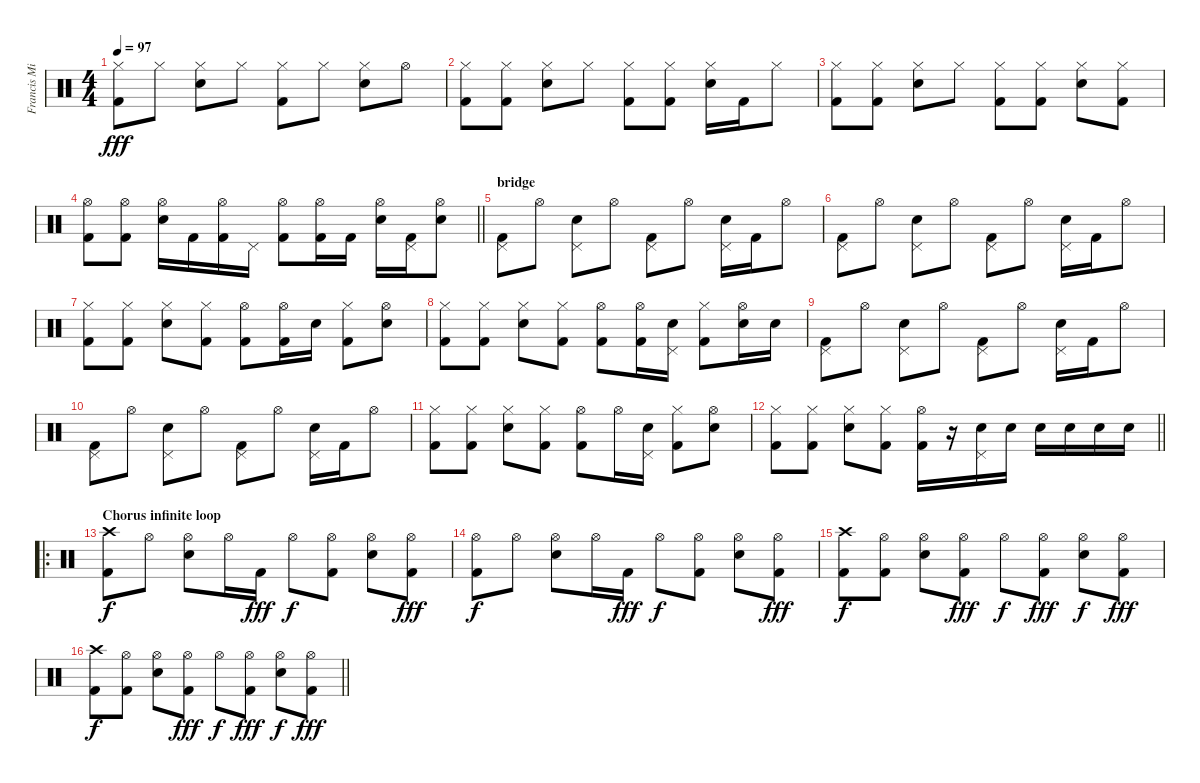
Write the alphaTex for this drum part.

\track ("Francis Mineau" "Francis Mi") {instrument percussion}
\staff {score}
\articulation defaults
\ts (4 4)
\tempo 97
\clef neutral
\ks c
("Hi-Hat (closed)" "Kick (hit) 2").8{dy fff} "Hi-Hat (closed)".8 ("Hi-Hat (closed)" "Snare (hit) 2").8 "Hi-Hat (closed)".8 ("Hi-Hat (closed)" "Kick (hit) 2").8 "Hi-Hat (closed)".8 ("Hi-Hat (closed)" "Snare (hit) 2").8 "Hi-Hat (open)".8 |
("Hi-Hat (closed)" "Kick (hit) 2").8 ("Hi-Hat (closed)" "Kick (hit) 2").8 ("Hi-Hat (closed)" "Snare (hit) 2").8 "Hi-Hat (closed)".8 ("Hi-Hat (closed)" "Kick (hit) 2").8 ("Hi-Hat (closed)" "Kick (hit) 2").8 ("Hi-Hat (closed)" "Snare (hit) 2").16 "Kick (hit) 2".16 "Hi-Hat (closed)".8 |
("Hi-Hat (closed)" "Kick (hit) 2").8 ("Hi-Hat (closed)" "Kick (hit) 2").8 ("Hi-Hat (closed)" "Snare (hit) 2").8 "Hi-Hat (closed)".8 ("Hi-Hat (closed)" "Kick (hit) 2").8 ("Hi-Hat (closed)" "Kick (hit) 2").8 ("Hi-Hat (closed)" "Snare (hit) 2").8 ("Hi-Hat (closed)" "Kick (hit) 2").8 |
\barLineRight lightlight
("Hi-Hat (open)" "Kick (hit) 2").8 ("Hi-Hat (open)" "Kick (hit) 2").8 ("Hi-Hat (open)" "Snare (hit) 2").16 "Kick (hit) 2".16 ("Hi-Hat (open)" "Kick (hit) 2").16 "Pedal Hi-Hat (hit)".16 ("Hi-Hat (open)" "Kick (hit) 2").8 ("Hi-Hat (open)" "Kick (hit) 2").16 "Kick (hit) 2".16 ("Hi-Hat (open)" "Snare (hit) 2").16 ("Pedal Hi-Hat (hit)" "Kick (hit) 2").16 ("Hi-Hat (open)" "Snare (hit) 2").8 |
\section ("" "bridge")
("Pedal Hi-Hat (hit)" "Kick (hit) 2").8 "Hi-Hat (open)".8 ("Pedal Hi-Hat (hit)" "Snare (hit) 2").8 "Hi-Hat (open)".8 ("Pedal Hi-Hat (hit)" "Kick (hit) 2").8 "Hi-Hat (open)".8 ("Pedal Hi-Hat (hit)" "Snare (hit) 2").16 "Kick (hit) 2".16 "Hi-Hat (open)".8 |
("Pedal Hi-Hat (hit)" "Kick (hit) 2").8 "Hi-Hat (open)".8 ("Pedal Hi-Hat (hit)" "Snare (hit) 2").8 "Hi-Hat (open)".8 ("Pedal Hi-Hat (hit)" "Kick (hit) 2").8 "Hi-Hat (open)".8 ("Pedal Hi-Hat (hit)" "Snare (hit) 2").16 "Kick (hit) 2".16 "Hi-Hat (open)".8 |
("Hi-Hat (closed)" "Kick (hit) 2").8 ("Hi-Hat (closed)" "Kick (hit) 2").8 ("Hi-Hat (closed)" "Snare (hit) 2").8 ("Hi-Hat (closed)" "Kick (hit) 2").8 ("Hi-Hat (open)" "Kick (hit) 2").8 ("Hi-Hat (open)" "Kick (hit) 2").16 "Snare (hit) 2".16 ("Hi-Hat (closed)" "Kick (hit) 2").8 ("Hi-Hat (open)" "Snare (hit) 2").8 |
("Hi-Hat (closed)" "Kick (hit) 2").8 ("Hi-Hat (closed)" "Kick (hit) 2").8 ("Hi-Hat (closed)" "Snare (hit) 2").8 ("Hi-Hat (closed)" "Kick (hit) 2").8 ("Hi-Hat (open)" "Kick (hit) 2").8 ("Hi-Hat (open)" "Kick (hit) 2").16 ("Pedal Hi-Hat (hit)" "Snare (hit) 2").16 ("Hi-Hat (closed)" "Kick (hit) 2").8 ("Hi-Hat (open)" "Snare (hit) 2").16 "Snare (hit) 2".16 |
("Pedal Hi-Hat (hit)" "Kick (hit) 2").8 "Hi-Hat (open)".8 ("Pedal Hi-Hat (hit)" "Snare (hit) 2").8 "Hi-Hat (open)".8 ("Pedal Hi-Hat (hit)" "Kick (hit) 2").8 "Hi-Hat (open)".8 ("Pedal Hi-Hat (hit)" "Snare (hit) 2").16 "Kick (hit) 2".16 "Hi-Hat (open)".8 |
("Pedal Hi-Hat (hit)" "Kick (hit) 2").8 "Hi-Hat (open)".8 ("Pedal Hi-Hat (hit)" "Snare (hit) 2").8 "Hi-Hat (open)".8 ("Pedal Hi-Hat (hit)" "Kick (hit) 2").8 "Hi-Hat (open)".8 ("Pedal Hi-Hat (hit)" "Snare (hit) 2").16 "Kick (hit) 2".16 "Hi-Hat (open)".8 |
("Hi-Hat (closed)" "Kick (hit) 2").8 ("Hi-Hat (closed)" "Kick (hit) 2").8 ("Hi-Hat (closed)" "Snare (hit) 2").8 ("Hi-Hat (closed)" "Kick (hit) 2").8 ("Hi-Hat (open)" "Kick (hit) 2").8 "Hi-Hat (open)".16 ("Pedal Hi-Hat (hit)" "Snare (hit) 2").16 ("Hi-Hat (closed)" "Kick (hit) 2").8 ("Hi-Hat (open)" "Snare (hit) 2").8 |
\barLineRight lightlight
("Hi-Hat (closed)" "Kick (hit) 2").8 ("Hi-Hat (closed)" "Kick (hit) 2").8 ("Hi-Hat (closed)" "Snare (hit) 2").8 ("Hi-Hat (closed)" "Kick (hit) 2").8 ("Hi-Hat (open)" "Kick (hit) 2").16 r.16 ("Snare (hit) 2" "Pedal Hi-Hat (hit)").16 "Snare (hit) 2".16 "Snare (hit) 2".16 "Snare (hit) 2".16 "Snare (hit) 2".16 "Snare (hit) 2".16 |
\ro
\section ("" "Chorus infinite loop")
("Crash high (hit)" "Kick (hit) 2").8{dy f} "Hi-Hat (open)".8 ("Hi-Hat (open)" "Snare (hit) 2").8 "Hi-Hat (open)".16 "Kick (hit) 2".16{dy fff} "Hi-Hat (open)".8{dy f} ("Hi-Hat (open)" "Kick (hit) 2").8 ("Hi-Hat (open)" "Snare (hit) 2").8 ("Hi-Hat (open)" "Kick (hit) 2").8{dy fff} |
("Hi-Hat (open)" "Kick (hit) 2").8{dy f} "Hi-Hat (open)".8 ("Hi-Hat (open)" "Snare (hit) 2").8 "Hi-Hat (open)".16 "Kick (hit) 2".16{dy fff} "Hi-Hat (open)".8{dy f} ("Hi-Hat (open)" "Kick (hit) 2").8 ("Hi-Hat (open)" "Snare (hit) 2").8 ("Hi-Hat (open)" "Kick (hit) 2").8{dy fff} |
("Crash high (hit)" "Kick (hit) 2").8{dy f} ("Hi-Hat (open)" "Kick (hit) 2").8 ("Hi-Hat (open)" "Snare (hit) 2").8 ("Hi-Hat (open)" "Kick (hit) 2").8{dy fff} "Hi-Hat (open)".8{dy f} ("Hi-Hat (open)" "Kick (hit) 2").8{dy fff} ("Hi-Hat (open)" "Snare (hit) 2").8{dy f} ("Hi-Hat (open)" "Kick (hit) 2").8{dy fff} |
\barLineRight lightlight
("Crash high (hit)" "Kick (hit) 2").8{dy f} ("Hi-Hat (open)" "Kick (hit) 2").8 ("Hi-Hat (open)" "Snare (hit) 2").8 ("Hi-Hat (open)" "Kick (hit) 2").8{dy fff} "Hi-Hat (open)".8{dy f} ("Hi-Hat (open)" "Kick (hit) 2").8{dy fff} ("Hi-Hat (open)" "Snare (hit) 2").8{dy f} ("Hi-Hat (open)" "Kick (hit) 2").8{dy fff}
